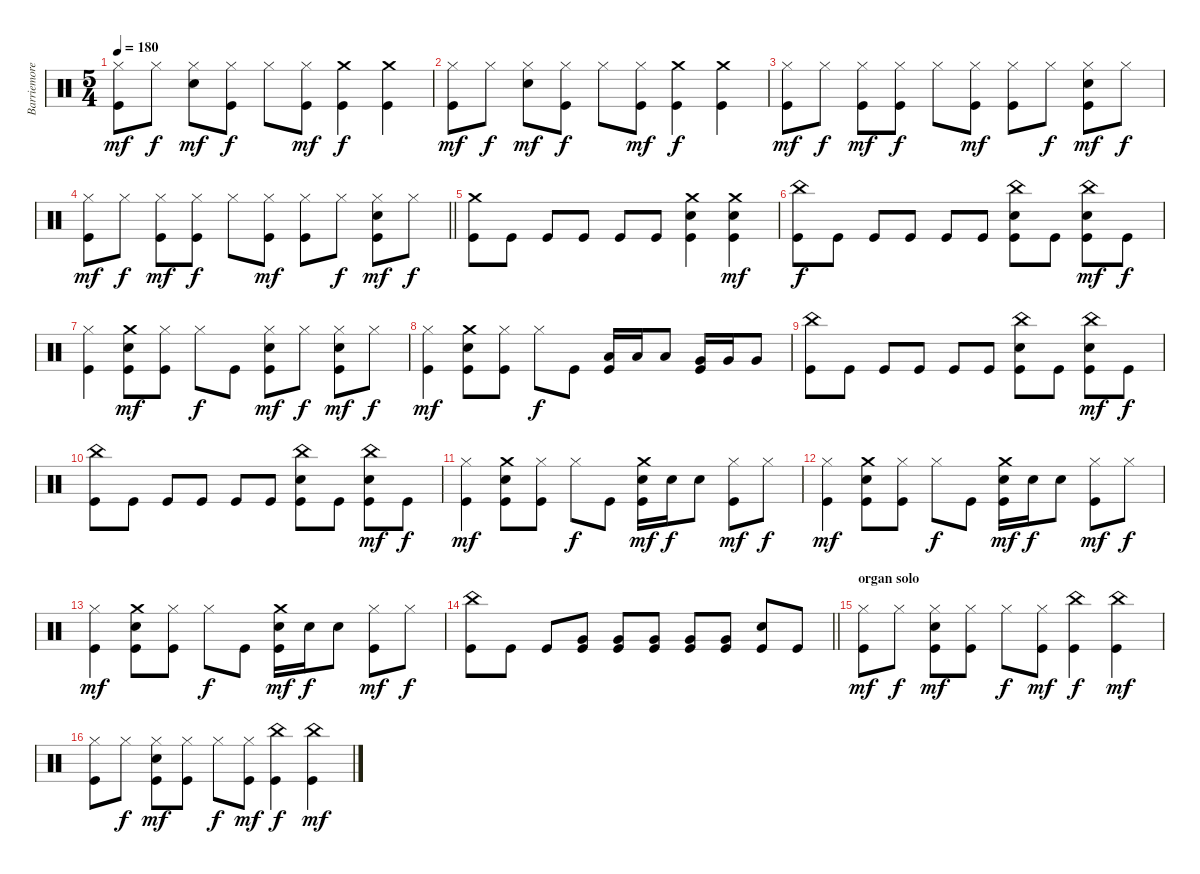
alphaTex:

\track ("Barriemore Barlow (drums)" "Barriemore") {instrument percussion}
\staff {score}
\articulation defaults
\ts (5 4)
\tempo 180
\clef neutral
\ks c
("Hi-Hat (closed)" "Kick (hit)").8{dy mf} "Hi-Hat (closed)".8{dy f} ("Hi-Hat (closed)" "Electric Snare (hit)").8{dy mf} ("Hi-Hat (closed)" "Kick (hit)").8{dy f} "Hi-Hat (closed)".8 ("Hi-Hat (closed)" "Kick (hit)").8{dy mf} ("Crash medium (hit)" "Kick (hit)").4{dy f} ("Crash medium (hit)" "Kick (hit)").4 |
("Hi-Hat (closed)" "Kick (hit)").8{dy mf} "Hi-Hat (closed)".8{dy f} ("Hi-Hat (closed)" "Electric Snare (hit)").8{dy mf} ("Hi-Hat (closed)" "Kick (hit)").8{dy f} "Hi-Hat (closed)".8 ("Hi-Hat (closed)" "Kick (hit)").8{dy mf} ("Crash medium (hit)" "Kick (hit)").4{dy f} ("Crash medium (hit)" "Kick (hit)").4 |
("Hi-Hat (closed)" "Kick (hit)").8{dy mf} "Hi-Hat (closed)".8{dy f} ("Hi-Hat (closed)" "Kick (hit)").8{dy mf} ("Hi-Hat (closed)" "Kick (hit)").8{dy f} "Hi-Hat (closed)".8 ("Hi-Hat (closed)" "Kick (hit)").8{dy mf} ("Hi-Hat (closed)" "Kick (hit)").8 "Hi-Hat (closed)".8{dy f} ("Hi-Hat (closed)" "Electric Snare (hit)" "Kick (hit)").8{dy mf} "Hi-Hat (closed)".8{dy f} |
\barLineRight lightlight
("Hi-Hat (closed)" "Kick (hit)").8{dy mf} "Hi-Hat (closed)".8{dy f} ("Hi-Hat (closed)" "Kick (hit)").8{dy mf} ("Hi-Hat (closed)" "Kick (hit)").8{dy f} "Hi-Hat (closed)".8 ("Hi-Hat (closed)" "Kick (hit)").8{dy mf} ("Hi-Hat (closed)" "Kick (hit)").8 "Hi-Hat (closed)".8{dy f} ("Hi-Hat (closed)" "Electric Snare (hit)" "Kick (hit)").8{dy mf} "Hi-Hat (closed)".8{dy f} |
("Crash medium (hit)" "Kick (hit)").8 "Kick (hit)".8 "Kick (hit)".8 "Kick (hit)".8 "Kick (hit)".8 "Kick (hit)".8 ("Crash medium (hit)" "Electric Snare (hit)" "Kick (hit)").4 ("Crash medium (hit)" "Electric Snare (hit)" "Kick (hit)").4{dy mf} |
("China (hit)" "Kick (hit)").8{dy f} "Kick (hit)".8 "Kick (hit)".8 "Kick (hit)".8 "Kick (hit)".8 "Kick (hit)".8 ("China (hit)" "Electric Snare (hit)" "Kick (hit)").8 "Kick (hit)".8 ("China (hit)" "Electric Snare (hit)" "Kick (hit)").8{dy mf} "Kick (hit)".8{dy f} |
("Hi-Hat (closed)" "Kick (hit)").4 ("Crash medium (hit)" "Electric Snare (hit)" "Kick (hit)").8{dy mf} ("Hi-Hat (closed)" "Kick (hit)").8 "Hi-Hat (closed)".8{dy f} "Kick (hit)".8 ("Hi-Hat (closed)" "Electric Snare (hit)" "Kick (hit)").8{dy mf} "Hi-Hat (closed)".8{dy f} ("Hi-Hat (closed)" "Electric Snare (hit)" "Kick (hit)").8{dy mf} "Hi-Hat (closed)".8{dy f} |
("Hi-Hat (closed)" "Kick (hit)").4{dy mf} ("Crash medium (hit)" "Electric Snare (hit)" "Kick (hit)").8 ("Hi-Hat (closed)" "Kick (hit)").8 "Hi-Hat (closed)".8{dy f} "Kick (hit)".8 ("Low Tom (hit)" "Kick (hit)").16 "Low Tom (hit)".16 "Low Tom (hit)".8 ("Very Low Tom (hit)" "Kick (hit)").16 "Very Low Tom (hit)".16 "Very Low Tom (hit)".8 |
("China (hit)" "Kick (hit)").8 "Kick (hit)".8 "Kick (hit)".8 "Kick (hit)".8 "Kick (hit)".8 "Kick (hit)".8 ("China (hit)" "Electric Snare (hit)" "Kick (hit)").8 "Kick (hit)".8 ("China (hit)" "Electric Snare (hit)" "Kick (hit)").8{dy mf} "Kick (hit)".8{dy f} |
("China (hit)" "Kick (hit)").8 "Kick (hit)".8 "Kick (hit)".8 "Kick (hit)".8 "Kick (hit)".8 "Kick (hit)".8 ("China (hit)" "Electric Snare (hit)" "Kick (hit)").8 "Kick (hit)".8 ("China (hit)" "Electric Snare (hit)" "Kick (hit)").8{dy mf} "Kick (hit)".8{dy f} |
("Hi-Hat (closed)" "Kick (hit)").4{dy mf} ("Crash medium (hit)" "Electric Snare (hit)" "Kick (hit)").8 ("Hi-Hat (closed)" "Kick (hit)").8 "Hi-Hat (closed)".8{dy f} "Kick (hit)".8 ("Crash medium (hit)" "Electric Snare (hit)" "Kick (hit)").16{dy mf} "Electric Snare (hit)".16{dy f} "Electric Snare (hit)".8 ("Hi-Hat (closed)" "Kick (hit)").8{dy mf} "Hi-Hat (closed)".8{dy f} |
("Hi-Hat (closed)" "Kick (hit)").4{dy mf} ("Crash medium (hit)" "Electric Snare (hit)" "Kick (hit)").8 ("Hi-Hat (closed)" "Kick (hit)").8 "Hi-Hat (closed)".8{dy f} "Kick (hit)".8 ("Crash medium (hit)" "Electric Snare (hit)" "Kick (hit)").16{dy mf} "Electric Snare (hit)".16{dy f} "Electric Snare (hit)".8 ("Hi-Hat (closed)" "Kick (hit)").8{dy mf} "Hi-Hat (closed)".8{dy f} |
("Hi-Hat (closed)" "Kick (hit)").4{dy mf} ("Crash medium (hit)" "Electric Snare (hit)" "Kick (hit)").8 ("Hi-Hat (closed)" "Kick (hit)").8 "Hi-Hat (closed)".8{dy f} "Kick (hit)".8 ("Crash medium (hit)" "Electric Snare (hit)" "Kick (hit)").16{dy mf} "Electric Snare (hit)".16{dy f} "Electric Snare (hit)".8 ("Hi-Hat (closed)" "Kick (hit)").8{dy mf} "Hi-Hat (closed)".8{dy f} |
\barLineRight lightlight
("China (hit)" "Kick (hit)").8 "Kick (hit)".8 "Kick (hit)".8 ("Very Low Tom (hit)" "Kick (hit)").8 ("Very Low Tom (hit)" "Kick (hit)").8 ("Very Low Tom (hit)" "Kick (hit)").8 ("Very Low Tom (hit)" "Kick (hit)").8 ("Very Low Tom (hit)" "Kick (hit)").8 ("Electric Snare (hit)" "Kick (hit)").8 "Kick (hit)".8 |
\section ("" "organ solo")
("Hi-Hat (closed)" "Kick (hit)").8{dy mf} "Hi-Hat (closed)".8{dy f} ("Hi-Hat (closed)" "Electric Snare (hit)" "Kick (hit)").8{dy mf} ("Hi-Hat (closed)" "Kick (hit)").8 "Hi-Hat (closed)".8{dy f} ("Hi-Hat (closed)" "Kick (hit)").8{dy mf} ("China (hit)" "Kick (hit)").4{dy f} ("China (hit)" "Kick (hit)").4{dy mf} |
("Hi-Hat (closed)" "Kick (hit)").8 "Hi-Hat (closed)".8{dy f} ("Hi-Hat (closed)" "Electric Snare (hit)" "Kick (hit)").8{dy mf} ("Hi-Hat (closed)" "Kick (hit)").8 "Hi-Hat (closed)".8{dy f} ("Hi-Hat (closed)" "Kick (hit)").8{dy mf} ("China (hit)" "Kick (hit)").4{dy f} ("China (hit)" "Kick (hit)").4{dy mf}
